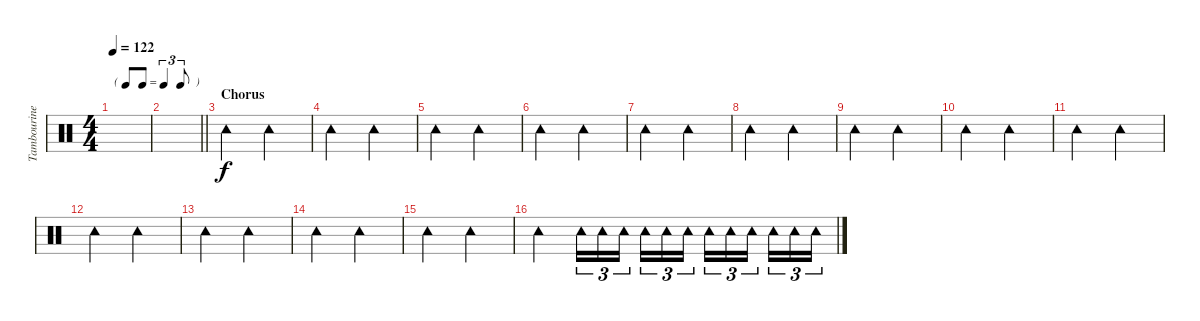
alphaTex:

\track ("Tambourine" "Tambourine") {instrument percussion}
\staff {score}
\articulation defaults
\ts (4 4)
\tf triplet8th
\tempo 122
\clef neutral
\ks c
|
\barLineRight lightlight
|
\section ("" "Chorus")
"Tambourine (hit)".2 "Tambourine (hit)".2 |
"Tambourine (hit)".2 "Tambourine (hit)".2 |
"Tambourine (hit)".2 "Tambourine (hit)".2 |
"Tambourine (hit)".2 "Tambourine (hit)".2 |
"Tambourine (hit)".2 "Tambourine (hit)".2 |
"Tambourine (hit)".2 "Tambourine (hit)".2 |
"Tambourine (hit)".2 "Tambourine (hit)".2 |
"Tambourine (hit)".2 "Tambourine (hit)".2 |
"Tambourine (hit)".2 "Tambourine (hit)".2 |
"Tambourine (hit)".2 "Tambourine (hit)".2 |
"Tambourine (hit)".2 "Tambourine (hit)".2 |
"Tambourine (hit)".2 "Tambourine (hit)".2 |
"Tambourine (hit)".2 "Tambourine (hit)".2 |
"Tambourine (hit)".2 "Tambourine (hit)".16{tu (3 2)} "Tambourine (hit)".16{tu (3 2)} "Tambourine (hit)".16{tu (3 2)} "Tambourine (hit)".16{tu (3 2)} "Tambourine (hit)".16{tu (3 2)} "Tambourine (hit)".16{tu (3 2)} "Tambourine (hit)".16{tu (3 2)} "Tambourine (hit)".16{tu (3 2)} "Tambourine (hit)".16{tu (3 2)} "Tambourine (hit)".16{tu (3 2)} "Tambourine (hit)".16{tu (3 2)} "Tambourine (hit)".16{tu (3 2)}
